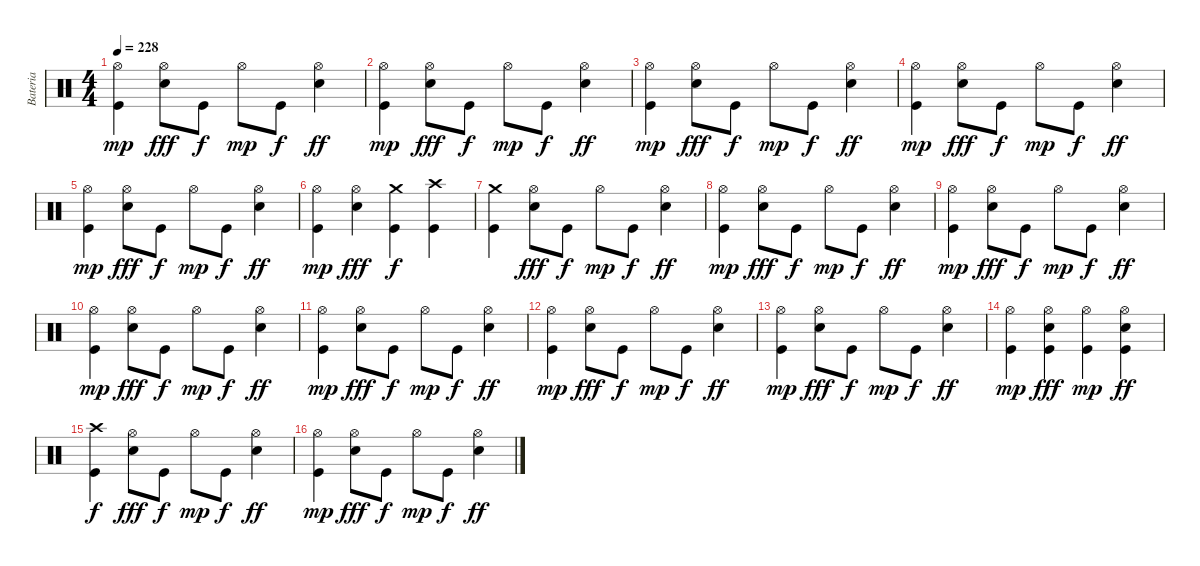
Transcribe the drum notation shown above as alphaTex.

\track ("Bateria" "Bateria") {instrument percussion}
\staff {score}
\articulation defaults
\ts (4 4)
\tempo 228
\clef neutral
\ks c
("Hi-Hat (open)" "Kick (hit)").4{dy mp} ("Hi-Hat (open)" "Electric Snare (hit)").8{dy fff} "Kick (hit)".8{dy f} "Hi-Hat (open)".8{dy mp} "Kick (hit)".8{dy f} ("Hi-Hat (open)" "Electric Snare (hit)").4{dy ff} |
("Hi-Hat (open)" "Kick (hit)").4{dy mp} ("Hi-Hat (open)" "Electric Snare (hit)").8{dy fff} "Kick (hit)".8{dy f} "Hi-Hat (open)".8{dy mp} "Kick (hit)".8{dy f} ("Hi-Hat (open)" "Electric Snare (hit)").4{dy ff} |
("Hi-Hat (open)" "Kick (hit)").4{dy mp} ("Hi-Hat (open)" "Electric Snare (hit)").8{dy fff} "Kick (hit)".8{dy f} "Hi-Hat (open)".8{dy mp} "Kick (hit)".8{dy f} ("Hi-Hat (open)" "Electric Snare (hit)").4{dy ff} |
("Hi-Hat (open)" "Kick (hit)").4{dy mp} ("Hi-Hat (open)" "Electric Snare (hit)").8{dy fff} "Kick (hit)".8{dy f} "Hi-Hat (open)".8{dy mp} "Kick (hit)".8{dy f} ("Hi-Hat (open)" "Electric Snare (hit)").4{dy ff} |
("Hi-Hat (open)" "Kick (hit)").4{dy mp} ("Hi-Hat (open)" "Electric Snare (hit)").8{dy fff} "Kick (hit)".8{dy f} "Hi-Hat (open)".8{dy mp} "Kick (hit)".8{dy f} ("Hi-Hat (open)" "Electric Snare (hit)").4{dy ff} |
("Hi-Hat (open)" "Kick (hit)").4{dy mp} ("Hi-Hat (open)" "Electric Snare (hit)").4{dy fff} ("Crash medium (hit)" "Kick (hit)").4{dy f} ("Crash high (hit)" "Kick (hit)").4 |
("Crash medium (hit)" "Kick (hit)").4 ("Hi-Hat (open)" "Electric Snare (hit)").8{dy fff} "Kick (hit)".8{dy f} "Hi-Hat (open)".8{dy mp} "Kick (hit)".8{dy f} ("Hi-Hat (open)" "Electric Snare (hit)").4{dy ff} |
("Hi-Hat (open)" "Kick (hit)").4{dy mp} ("Hi-Hat (open)" "Electric Snare (hit)").8{dy fff} "Kick (hit)".8{dy f} "Hi-Hat (open)".8{dy mp} "Kick (hit)".8{dy f} ("Hi-Hat (open)" "Electric Snare (hit)").4{dy ff} |
("Hi-Hat (open)" "Kick (hit)").4{dy mp} ("Hi-Hat (open)" "Electric Snare (hit)").8{dy fff} "Kick (hit)".8{dy f} "Hi-Hat (open)".8{dy mp} "Kick (hit)".8{dy f} ("Hi-Hat (open)" "Electric Snare (hit)").4{dy ff} |
("Hi-Hat (open)" "Kick (hit)").4{dy mp} ("Hi-Hat (open)" "Electric Snare (hit)").8{dy fff} "Kick (hit)".8{dy f} "Hi-Hat (open)".8{dy mp} "Kick (hit)".8{dy f} ("Hi-Hat (open)" "Electric Snare (hit)").4{dy ff} |
("Hi-Hat (open)" "Kick (hit)").4{dy mp} ("Hi-Hat (open)" "Electric Snare (hit)").8{dy fff} "Kick (hit)".8{dy f} "Hi-Hat (open)".8{dy mp} "Kick (hit)".8{dy f} ("Hi-Hat (open)" "Electric Snare (hit)").4{dy ff} |
("Hi-Hat (open)" "Kick (hit)").4{dy mp} ("Hi-Hat (open)" "Electric Snare (hit)").8{dy fff} "Kick (hit)".8{dy f} "Hi-Hat (open)".8{dy mp} "Kick (hit)".8{dy f} ("Hi-Hat (open)" "Electric Snare (hit)").4{dy ff} |
("Hi-Hat (open)" "Kick (hit)").4{dy mp} ("Hi-Hat (open)" "Electric Snare (hit)").8{dy fff} "Kick (hit)".8{dy f} "Hi-Hat (open)".8{dy mp} "Kick (hit)".8{dy f} ("Hi-Hat (open)" "Electric Snare (hit)").4{dy ff} |
("Hi-Hat (open)" "Kick (hit)").4{dy mp} ("Hi-Hat (open)" "Kick (hit)" "Electric Snare (hit)").4{dy fff} ("Hi-Hat (open)" "Kick (hit)").4{dy mp} ("Hi-Hat (open)" "Kick (hit)" "Electric Snare (hit)").4{dy ff} |
("Crash high (hit)" "Kick (hit)").4{dy f} ("Hi-Hat (open)" "Electric Snare (hit)").8{dy fff} "Kick (hit)".8{dy f} "Hi-Hat (open)".8{dy mp} "Kick (hit)".8{dy f} ("Hi-Hat (open)" "Electric Snare (hit)").4{dy ff} |
("Hi-Hat (open)" "Kick (hit)").4{dy mp} ("Hi-Hat (open)" "Electric Snare (hit)").8{dy fff} "Kick (hit)".8{dy f} "Hi-Hat (open)".8{dy mp} "Kick (hit)".8{dy f} ("Hi-Hat (open)" "Electric Snare (hit)").4{dy ff}
